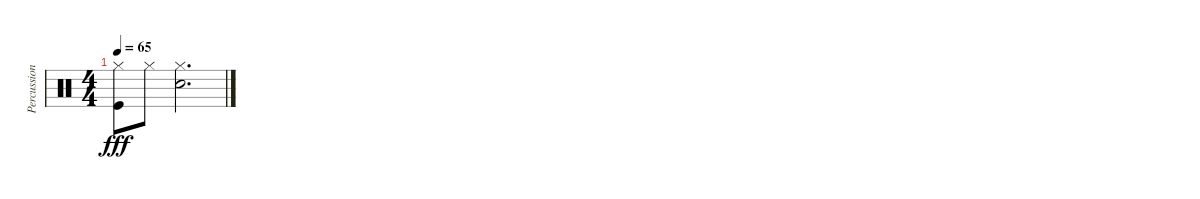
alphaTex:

\track ("Percussion" "Percussion") {instrument percussion}
\staff {score}
\articulation defaults
\ts (4 4)
\tempo 65
\clef neutral
\ks c
("Hi-Hat (closed)" "Kick (hit)").8{dy fff} "Hi-Hat (closed)".8 ("Hi-Hat (closed)" "Electric Snare (hit)").2{d}
